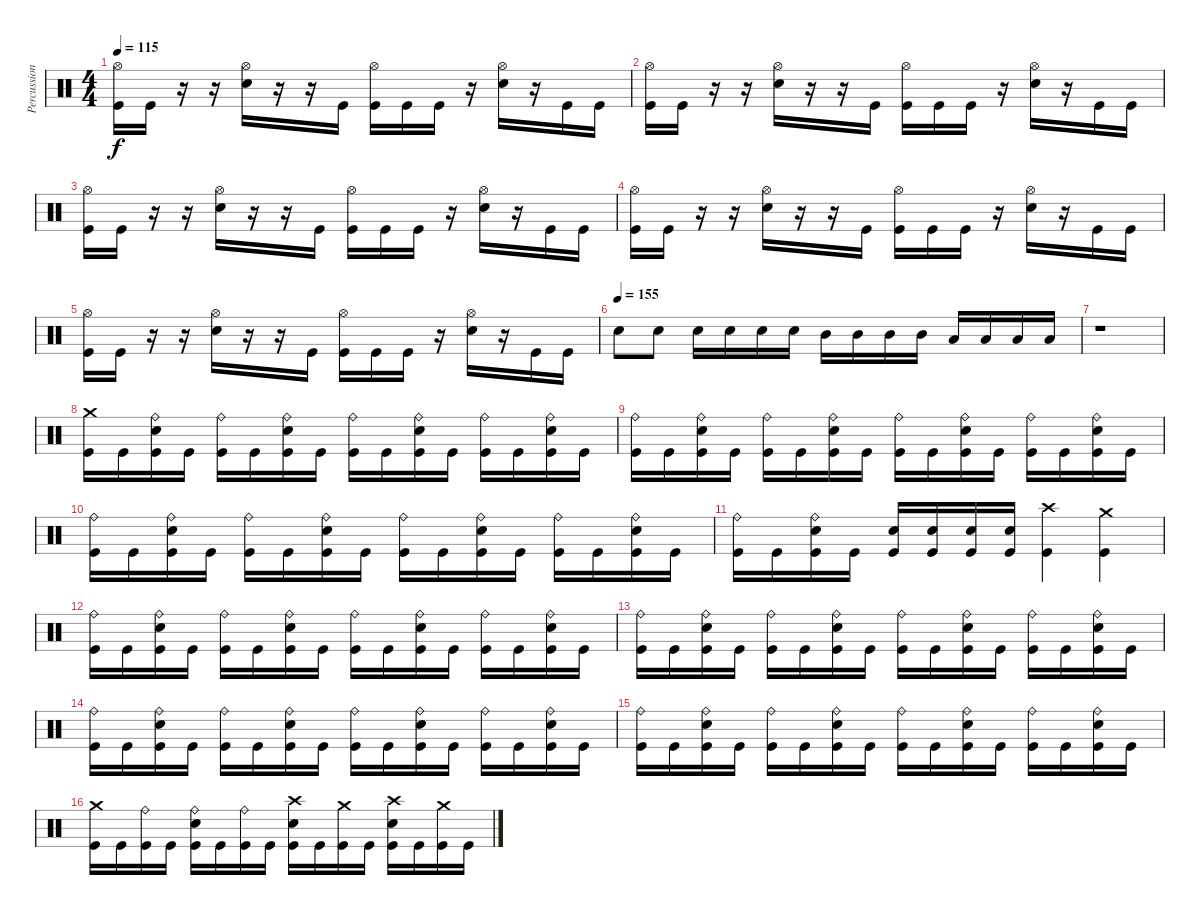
\track ("Percussion" "Percussion") {instrument percussion}
\staff {score}
\articulation defaults
\ts (4 4)
\tempo 115
\clef neutral
\ks c
("Hi-Hat (open)" "Kick (hit)").16{dy f} "Kick (hit)".16 r.16 r.16 ("Hi-Hat (open)" "Snare (hit) 2").16 r.16 r.16 "Kick (hit)".16 ("Hi-Hat (open)" "Kick (hit)").16 "Kick (hit)".16 "Kick (hit)".16 r.16 ("Hi-Hat (open)" "Snare (hit) 2").16 r.16 "Kick (hit)".16 "Kick (hit)".16 |
("Hi-Hat (open)" "Kick (hit)").16 "Kick (hit)".16 r.16 r.16 ("Hi-Hat (open)" "Snare (hit) 2").16 r.16 r.16 "Kick (hit)".16 ("Hi-Hat (open)" "Kick (hit)").16 "Kick (hit)".16 "Kick (hit)".16 r.16 ("Hi-Hat (open)" "Snare (hit) 2").16 r.16 "Kick (hit)".16 "Kick (hit)".16 |
("Hi-Hat (open)" "Kick (hit)").16 "Kick (hit)".16 r.16 r.16 ("Hi-Hat (open)" "Snare (hit) 2").16 r.16 r.16 "Kick (hit)".16 ("Hi-Hat (open)" "Kick (hit)").16 "Kick (hit)".16 "Kick (hit)".16 r.16 ("Hi-Hat (open)" "Snare (hit) 2").16 r.16 "Kick (hit)".16 "Kick (hit)".16 |
("Hi-Hat (open)" "Kick (hit)").16 "Kick (hit)".16 r.16 r.16 ("Hi-Hat (open)" "Snare (hit) 2").16 r.16 r.16 "Kick (hit)".16 ("Hi-Hat (open)" "Kick (hit)").16 "Kick (hit)".16 "Kick (hit)".16 r.16 ("Hi-Hat (open)" "Snare (hit) 2").16 r.16 "Kick (hit)".16 "Kick (hit)".16 |
("Hi-Hat (open)" "Kick (hit)").16 "Kick (hit)".16 r.16 r.16 ("Hi-Hat (open)" "Snare (hit) 2").16 r.16 r.16 "Kick (hit)".16 ("Hi-Hat (open)" "Kick (hit)").16 "Kick (hit)".16 "Kick (hit)".16 r.16 ("Hi-Hat (open)" "Snare (hit) 2").16 r.16 "Kick (hit)".16 "Kick (hit)".16 |
\tempo (155)
"Snare (hit) 2".8 "Snare (hit) 2".8 "Snare (hit) 2".16 "Snare (hit) 2".16 "Snare (hit) 2".16 "Snare (hit) 2".16 "Mid Tom (hit)".16 "Mid Tom (hit)".16 "Mid Tom (hit)".16 "Mid Tom (hit)".16 "Low Tom (hit)".16 "Low Tom (hit)".16 "Low Tom (hit)".16 "Low Tom (hit)".16 |
r.1 |
("Crash medium (hit)" "Kick (hit)").16 "Kick (hit)".16 ("Ride (bell)" "Snare (hit) 2" "Kick (hit)").16 "Kick (hit)".16 ("Ride (bell)" "Kick (hit)").16 "Kick (hit)".16 ("Ride (bell)" "Snare (hit) 2" "Kick (hit)").16 "Kick (hit)".16 ("Ride (bell)" "Kick (hit)").16 "Kick (hit)".16 ("Ride (bell)" "Snare (hit) 2" "Kick (hit)").16 "Kick (hit)".16 ("Ride (bell)" "Kick (hit)").16 "Kick (hit)".16 ("Ride (bell)" "Snare (hit) 2" "Kick (hit)").16 "Kick (hit)".16 |
("Ride (bell)" "Kick (hit)").16 "Kick (hit)".16 ("Ride (bell)" "Snare (hit) 2" "Kick (hit)").16 "Kick (hit)".16 ("Ride (bell)" "Kick (hit)").16 "Kick (hit)".16 ("Ride (bell)" "Snare (hit) 2" "Kick (hit)").16 "Kick (hit)".16 ("Ride (bell)" "Kick (hit)").16 "Kick (hit)".16 ("Ride (bell)" "Snare (hit) 2" "Kick (hit)").16 "Kick (hit)".16 ("Ride (bell)" "Kick (hit)").16 "Kick (hit)".16 ("Ride (bell)" "Snare (hit) 2" "Kick (hit)").16 "Kick (hit)".16 |
("Ride (bell)" "Kick (hit)").16 "Kick (hit)".16 ("Ride (bell)" "Snare (hit) 2" "Kick (hit)").16 "Kick (hit)".16 ("Ride (bell)" "Kick (hit)").16 "Kick (hit)".16 ("Ride (bell)" "Snare (hit) 2" "Kick (hit)").16 "Kick (hit)".16 ("Ride (bell)" "Kick (hit)").16 "Kick (hit)".16 ("Ride (bell)" "Snare (hit) 2" "Kick (hit)").16 "Kick (hit)".16 ("Ride (bell)" "Kick (hit)").16 "Kick (hit)".16 ("Ride (bell)" "Snare (hit) 2" "Kick (hit)").16 "Kick (hit)".16 |
("Ride (bell)" "Kick (hit)").16 "Kick (hit)".16 ("Ride (bell)" "Snare (hit) 2" "Kick (hit)").16 "Kick (hit)".16 ("Snare (hit) 2" "Kick (hit)").16 ("Snare (hit) 2" "Kick (hit)").16 ("Snare (hit) 2" "Kick (hit)").16 ("Snare (hit) 2" "Kick (hit)").16 ("Crash high (hit)" "Kick (hit)").4 ("Crash medium (hit)" "Kick (hit)").4 |
("Ride (bell)" "Kick (hit)").16 "Kick (hit)".16 ("Ride (bell)" "Snare (hit) 2" "Kick (hit)").16 "Kick (hit)".16 ("Ride (bell)" "Kick (hit)").16 "Kick (hit)".16 ("Ride (bell)" "Snare (hit) 2" "Kick (hit)").16 "Kick (hit)".16 ("Ride (bell)" "Kick (hit)").16 "Kick (hit)".16 ("Ride (bell)" "Snare (hit) 2" "Kick (hit)").16 "Kick (hit)".16 ("Ride (bell)" "Kick (hit)").16 "Kick (hit)".16 ("Ride (bell)" "Snare (hit) 2" "Kick (hit)").16 "Kick (hit)".16 |
("Ride (bell)" "Kick (hit)").16 "Kick (hit)".16 ("Ride (bell)" "Snare (hit) 2" "Kick (hit)").16 "Kick (hit)".16 ("Ride (bell)" "Kick (hit)").16 "Kick (hit)".16 ("Ride (bell)" "Snare (hit) 2" "Kick (hit)").16 "Kick (hit)".16 ("Ride (bell)" "Kick (hit)").16 "Kick (hit)".16 ("Ride (bell)" "Snare (hit) 2" "Kick (hit)").16 "Kick (hit)".16 ("Ride (bell)" "Kick (hit)").16 "Kick (hit)".16 ("Ride (bell)" "Snare (hit) 2" "Kick (hit)").16 "Kick (hit)".16 |
("Ride (bell)" "Kick (hit)").16 "Kick (hit)".16 ("Ride (bell)" "Snare (hit) 2" "Kick (hit)").16 "Kick (hit)".16 ("Ride (bell)" "Kick (hit)").16 "Kick (hit)".16 ("Ride (bell)" "Snare (hit) 2" "Kick (hit)").16 "Kick (hit)".16 ("Ride (bell)" "Kick (hit)").16 "Kick (hit)".16 ("Ride (bell)" "Snare (hit) 2" "Kick (hit)").16 "Kick (hit)".16 ("Ride (bell)" "Kick (hit)").16 "Kick (hit)".16 ("Ride (bell)" "Snare (hit) 2" "Kick (hit)").16 "Kick (hit)".16 |
("Ride (bell)" "Kick (hit)").16 "Kick (hit)".16 ("Ride (bell)" "Snare (hit) 2" "Kick (hit)").16 "Kick (hit)".16 ("Ride (bell)" "Kick (hit)").16 "Kick (hit)".16 ("Ride (bell)" "Snare (hit) 2" "Kick (hit)").16 "Kick (hit)".16 ("Ride (bell)" "Kick (hit)").16 "Kick (hit)".16 ("Ride (bell)" "Snare (hit) 2" "Kick (hit)").16 "Kick (hit)".16 ("Ride (bell)" "Kick (hit)").16 "Kick (hit)".16 ("Ride (bell)" "Snare (hit) 2" "Kick (hit)").16 "Kick (hit)".16 |
("Crash medium (hit)" "Kick (hit)").16 "Kick (hit)".16 ("Ride (bell)" "Kick (hit)").16 "Kick (hit)".16 ("Ride (bell)" "Snare (hit) 2" "Kick (hit)").16 "Kick (hit)".16 ("Ride (bell)" "Kick (hit)").16 "Kick (hit)".16 ("Crash high (hit)" "Snare (hit) 2" "Kick (hit)").16 "Kick (hit)".16 ("Crash medium (hit)" "Kick (hit)").16 "Kick (hit)".16 ("Crash high (hit)" "Snare (hit) 2" "Kick (hit)").16 "Kick (hit)".16 ("Crash medium (hit)" "Kick (hit)").16 "Kick (hit)".16
